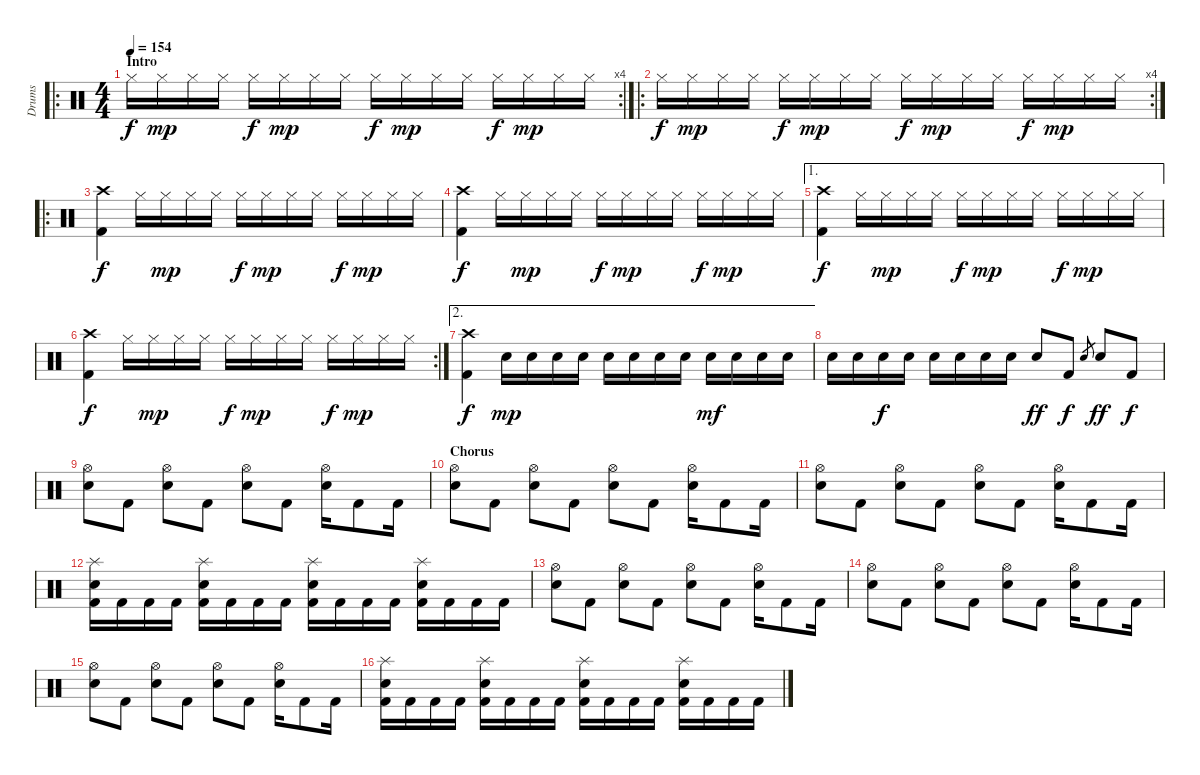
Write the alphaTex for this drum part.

\track ("Drums" "Drums") {instrument percussion}
\staff {score}
\articulation defaults
\ro
\rc 4
\ts (4 4)
\section ("" "Intro")
\tempo 154
\clef neutral
\ks c "Hi-Hat (closed)".16{dy f} "Hi-Hat (closed)".16{dy mp} "Hi-Hat (closed)".16 "Hi-Hat (closed)".16 "Hi-Hat (closed)".16{dy f} "Hi-Hat (closed)".16{dy mp} "Hi-Hat (closed)".16 "Hi-Hat (closed)".16 "Hi-Hat (closed)".16{dy f} "Hi-Hat (closed)".16{dy mp} "Hi-Hat (closed)".16 "Hi-Hat (closed)".16 "Hi-Hat (closed)".16{dy f} "Hi-Hat (closed)".16{dy mp} "Hi-Hat (closed)".16 "Hi-Hat (closed)".16
|
\ro
\rc 4 "Hi-Hat (closed)".16{dy f} "Hi-Hat (closed)".16{dy mp} "Hi-Hat (closed)".16 "Hi-Hat (closed)".16 "Hi-Hat (closed)".16{dy f} "Hi-Hat (closed)".16{dy mp} "Hi-Hat (closed)".16 "Hi-Hat (closed)".16 "Hi-Hat (closed)".16{dy f} "Hi-Hat (closed)".16{dy mp} "Hi-Hat (closed)".16 "Hi-Hat (closed)".16 "Hi-Hat (closed)".16{dy f} "Hi-Hat (closed)".16{dy mp} "Hi-Hat (closed)".16 "Hi-Hat (closed)".16
|
\ro
("Crash high (hit)" "Kick (hit) 2").4{dy f} "Hi-Hat (closed)".16 "Hi-Hat (closed)".16{dy mp} "Hi-Hat (closed)".16 "Hi-Hat (closed)".16 "Hi-Hat (closed)".16{dy f} "Hi-Hat (closed)".16{dy mp} "Hi-Hat (closed)".16 "Hi-Hat (closed)".16 "Hi-Hat (closed)".16{dy f} "Hi-Hat (closed)".16{dy mp} "Hi-Hat (closed)".16 "Hi-Hat (closed)".16 |
("Crash high (hit)" "Kick (hit) 2").4{dy f} "Hi-Hat (closed)".16 "Hi-Hat (closed)".16{dy mp} "Hi-Hat (closed)".16 "Hi-Hat (closed)".16 "Hi-Hat (closed)".16{dy f} "Hi-Hat (closed)".16{dy mp} "Hi-Hat (closed)".16 "Hi-Hat (closed)".16 "Hi-Hat (closed)".16{dy f} "Hi-Hat (closed)".16{dy mp} "Hi-Hat (closed)".16 "Hi-Hat (closed)".16 |
\ae 1
("Crash high (hit)" "Kick (hit) 2").4{dy f} "Hi-Hat (closed)".16 "Hi-Hat (closed)".16{dy mp} "Hi-Hat (closed)".16 "Hi-Hat (closed)".16 "Hi-Hat (closed)".16{dy f} "Hi-Hat (closed)".16{dy mp} "Hi-Hat (closed)".16 "Hi-Hat (closed)".16 "Hi-Hat (closed)".16{dy f} "Hi-Hat (closed)".16{dy mp} "Hi-Hat (closed)".16 "Hi-Hat (closed)".16 |
\rc 2
("Crash high (hit)" "Kick (hit) 2").4{dy f} "Hi-Hat (closed)".16 "Hi-Hat (closed)".16{dy mp} "Hi-Hat (closed)".16 "Hi-Hat (closed)".16 "Hi-Hat (closed)".16{dy f} "Hi-Hat (closed)".16{dy mp} "Hi-Hat (closed)".16 "Hi-Hat (closed)".16 "Hi-Hat (closed)".16{dy f} "Hi-Hat (closed)".16{dy mp} "Hi-Hat (closed)".16 "Hi-Hat (closed)".16 |
\ae 2
("Crash high (hit)" "Kick (hit) 2").4{dy f} "Electric Snare (hit)".16{dy mp} "Electric Snare (hit)".16 "Electric Snare (hit)".16 "Electric Snare (hit)".16 "Electric Snare (hit)".16 "Electric Snare (hit)".16 "Electric Snare (hit)".16 "Electric Snare (hit)".16 "Electric Snare (hit)".16{dy mf} "Electric Snare (hit)".16 "Electric Snare (hit)".16 "Electric Snare (hit)".16 |
"Electric Snare (hit)".16 "Electric Snare (hit)".16 "Electric Snare (hit)".16{dy f} "Electric Snare (hit)".16 "Electric Snare (hit)".16 "Electric Snare (hit)".16 "Electric Snare (hit)".16 "Electric Snare (hit)".16 "Electric Snare (hit)".8{dy ff} "Kick (hit) 2".8{dy f} "Electric Snare (hit)".8{gr} "Electric Snare (hit)".8{dy ff} "Kick (hit) 2".8{dy f} |
("Hi-Hat (open)" "Electric Snare (hit)").8 "Kick (hit) 2".8 ("Hi-Hat (open)" "Electric Snare (hit)").8 "Kick (hit) 2".8 ("Hi-Hat (open)" "Electric Snare (hit)").8 "Kick (hit) 2".8 ("Hi-Hat (open)" "Electric Snare (hit)").16 "Kick (hit) 2".8 "Kick (hit) 2".16 |
\section ("" "Chorus")
("Hi-Hat (open)" "Electric Snare (hit)").8 "Kick (hit) 2".8 ("Hi-Hat (open)" "Electric Snare (hit)").8 "Kick (hit) 2".8 ("Hi-Hat (open)" "Electric Snare (hit)").8 "Kick (hit) 2".8 ("Hi-Hat (open)" "Electric Snare (hit)").16 "Kick (hit) 2".8 "Kick (hit) 2".16 |
("Hi-Hat (open)" "Electric Snare (hit)").8 "Kick (hit) 2".8 ("Hi-Hat (open)" "Electric Snare (hit)").8 "Kick (hit) 2".8 ("Hi-Hat (open)" "Electric Snare (hit)").8 "Kick (hit) 2".8 ("Hi-Hat (open)" "Electric Snare (hit)").16 "Kick (hit) 2".8 "Kick (hit) 2".16 |
("Splash (hit)" "Electric Snare (hit)" "Kick (hit) 2").16 "Kick (hit) 2".16 "Kick (hit) 2".16 "Kick (hit) 2".16 ("Splash (hit)" "Electric Snare (hit)" "Kick (hit) 2").16 "Kick (hit) 2".16 "Kick (hit) 2".16 "Kick (hit) 2".16 ("Splash (hit)" "Electric Snare (hit)" "Kick (hit) 2").16 "Kick (hit) 2".16 "Kick (hit) 2".16 "Kick (hit) 2".16 ("Splash (hit)" "Electric Snare (hit)" "Kick (hit) 2").16 "Kick (hit) 2".16 "Kick (hit) 2".16 "Kick (hit) 2".16 |
("Hi-Hat (open)" "Electric Snare (hit)").8 "Kick (hit) 2".8 ("Hi-Hat (open)" "Electric Snare (hit)").8 "Kick (hit) 2".8 ("Hi-Hat (open)" "Electric Snare (hit)").8 "Kick (hit) 2".8 ("Hi-Hat (open)" "Electric Snare (hit)").16 "Kick (hit) 2".8 "Kick (hit) 2".16 |
("Hi-Hat (open)" "Electric Snare (hit)").8 "Kick (hit) 2".8 ("Hi-Hat (open)" "Electric Snare (hit)").8 "Kick (hit) 2".8 ("Hi-Hat (open)" "Electric Snare (hit)").8 "Kick (hit) 2".8 ("Hi-Hat (open)" "Electric Snare (hit)").16 "Kick (hit) 2".8 "Kick (hit) 2".16 |
("Hi-Hat (open)" "Electric Snare (hit)").8 "Kick (hit) 2".8 ("Hi-Hat (open)" "Electric Snare (hit)").8 "Kick (hit) 2".8 ("Hi-Hat (open)" "Electric Snare (hit)").8 "Kick (hit) 2".8 ("Hi-Hat (open)" "Electric Snare (hit)").16 "Kick (hit) 2".8 "Kick (hit) 2".16 |
("Splash (hit)" "Electric Snare (hit)" "Kick (hit) 2").16 "Kick (hit) 2".16 "Kick (hit) 2".16 "Kick (hit) 2".16 ("Splash (hit)" "Electric Snare (hit)" "Kick (hit) 2").16 "Kick (hit) 2".16 "Kick (hit) 2".16 "Kick (hit) 2".16 ("Splash (hit)" "Electric Snare (hit)" "Kick (hit) 2").16 "Kick (hit) 2".16 "Kick (hit) 2".16 "Kick (hit) 2".16 ("Splash (hit)" "Electric Snare (hit)" "Kick (hit) 2").16 "Kick (hit) 2".16 "Kick (hit) 2".16 "Kick (hit) 2".16
